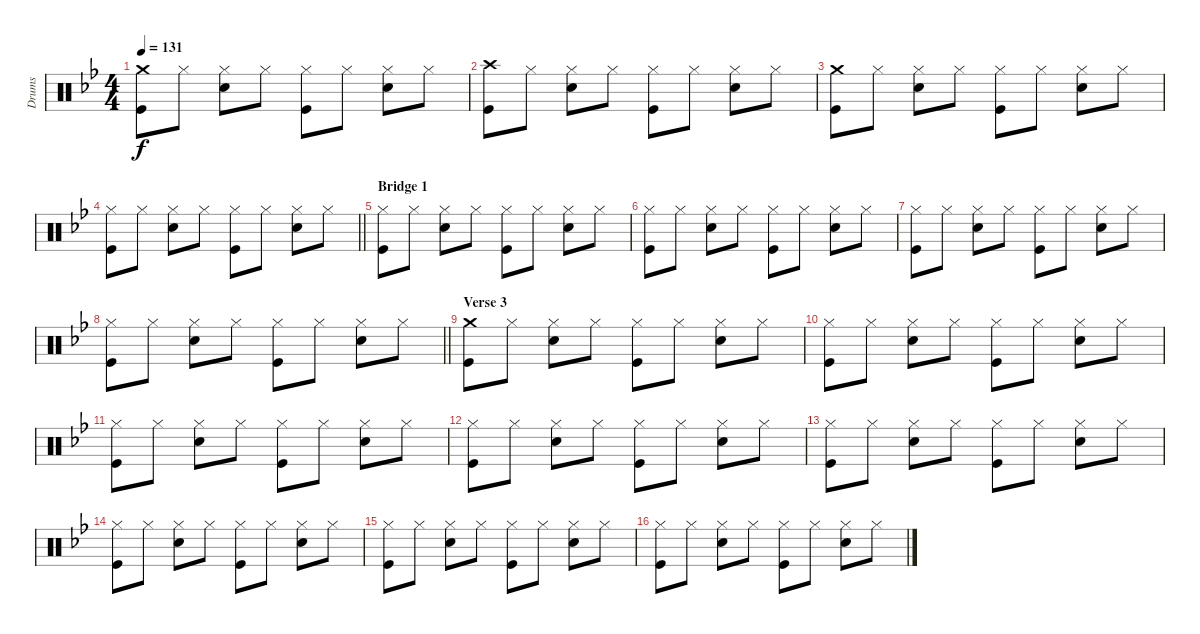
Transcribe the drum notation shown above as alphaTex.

\track ("Drums" "Drums") {instrument percussion}
\staff {score}
\articulation defaults
\ts (4 4)
\tempo 131
\clef neutral
\ks bb
("Crash medium (hit)" "Kick (hit)").8{dy f} "Hi-Hat (closed)".8 ("Hi-Hat (closed)" "Snare (hit) 2").8 "Hi-Hat (closed)".8 ("Hi-Hat (closed)" "Kick (hit)").8 "Hi-Hat (closed)".8 ("Hi-Hat (closed)" "Snare (hit) 2").8 "Hi-Hat (closed)".8 |
("Crash high (hit)" "Kick (hit)").8 "Hi-Hat (closed)".8 ("Hi-Hat (closed)" "Snare (hit) 2").8 "Hi-Hat (closed)".8 ("Hi-Hat (closed)" "Kick (hit)").8 "Hi-Hat (closed)".8 ("Hi-Hat (closed)" "Snare (hit) 2").8 "Hi-Hat (closed)".8 |
("Crash medium (hit)" "Kick (hit)").8 "Hi-Hat (closed)".8 ("Hi-Hat (closed)" "Snare (hit) 2").8 "Hi-Hat (closed)".8 ("Hi-Hat (closed)" "Kick (hit)").8 "Hi-Hat (closed)".8 ("Hi-Hat (closed)" "Snare (hit) 2").8 "Hi-Hat (closed)".8 |
\barLineRight lightlight
("Hi-Hat (closed)" "Kick (hit)").8 "Hi-Hat (closed)".8 ("Hi-Hat (closed)" "Snare (hit) 2").8 "Hi-Hat (closed)".8 ("Hi-Hat (closed)" "Kick (hit)").8 "Hi-Hat (closed)".8 ("Hi-Hat (closed)" "Snare (hit) 2").8 "Hi-Hat (closed)".8 |
\section ("" "Bridge 1")
("Hi-Hat (closed)" "Kick (hit)").8 "Hi-Hat (closed)".8 ("Hi-Hat (closed)" "Snare (hit) 2").8 "Hi-Hat (closed)".8 ("Hi-Hat (closed)" "Kick (hit)").8 "Hi-Hat (closed)".8 ("Hi-Hat (closed)" "Snare (hit) 2").8 "Hi-Hat (closed)".8 |
("Hi-Hat (closed)" "Kick (hit)").8 "Hi-Hat (closed)".8 ("Hi-Hat (closed)" "Snare (hit) 2").8 "Hi-Hat (closed)".8 ("Hi-Hat (closed)" "Kick (hit)").8 "Hi-Hat (closed)".8 ("Hi-Hat (closed)" "Snare (hit) 2").8 "Hi-Hat (closed)".8 |
("Hi-Hat (closed)" "Kick (hit)").8 "Hi-Hat (closed)".8 ("Hi-Hat (closed)" "Snare (hit) 2").8 "Hi-Hat (closed)".8 ("Hi-Hat (closed)" "Kick (hit)").8 "Hi-Hat (closed)".8 ("Hi-Hat (closed)" "Snare (hit) 2").8 "Hi-Hat (closed)".8 |
\barLineRight lightlight
("Hi-Hat (closed)" "Kick (hit)").8 "Hi-Hat (closed)".8 ("Hi-Hat (closed)" "Snare (hit) 2").8 "Hi-Hat (closed)".8 ("Hi-Hat (closed)" "Kick (hit)").8 "Hi-Hat (closed)".8 ("Hi-Hat (closed)" "Snare (hit) 2").8 "Hi-Hat (closed)".8 |
\section ("" "Verse 3")
("Crash medium (hit)" "Kick (hit)").8 "Hi-Hat (closed)".8 ("Hi-Hat (closed)" "Snare (hit) 2").8 "Hi-Hat (closed)".8 ("Hi-Hat (closed)" "Kick (hit)").8 "Hi-Hat (closed)".8 ("Hi-Hat (closed)" "Snare (hit) 2").8 "Hi-Hat (closed)".8 |
("Hi-Hat (closed)" "Kick (hit)").8 "Hi-Hat (closed)".8 ("Hi-Hat (closed)" "Snare (hit) 2").8 "Hi-Hat (closed)".8 ("Hi-Hat (closed)" "Kick (hit)").8 "Hi-Hat (closed)".8 ("Hi-Hat (closed)" "Snare (hit) 2").8 "Hi-Hat (closed)".8 |
("Hi-Hat (closed)" "Kick (hit)").8 "Hi-Hat (closed)".8 ("Hi-Hat (closed)" "Snare (hit) 2").8 "Hi-Hat (closed)".8 ("Hi-Hat (closed)" "Kick (hit)").8 "Hi-Hat (closed)".8 ("Hi-Hat (closed)" "Snare (hit) 2").8 "Hi-Hat (closed)".8 |
("Hi-Hat (closed)" "Kick (hit)").8 "Hi-Hat (closed)".8 ("Hi-Hat (closed)" "Snare (hit) 2").8 "Hi-Hat (closed)".8 ("Hi-Hat (closed)" "Kick (hit)").8 "Hi-Hat (closed)".8 ("Hi-Hat (closed)" "Snare (hit) 2").8 "Hi-Hat (closed)".8 |
("Hi-Hat (closed)" "Kick (hit)").8 "Hi-Hat (closed)".8 ("Hi-Hat (closed)" "Snare (hit) 2").8 "Hi-Hat (closed)".8 ("Hi-Hat (closed)" "Kick (hit)").8 "Hi-Hat (closed)".8 ("Hi-Hat (closed)" "Snare (hit) 2").8 "Hi-Hat (closed)".8 |
("Hi-Hat (closed)" "Kick (hit)").8 "Hi-Hat (closed)".8 ("Hi-Hat (closed)" "Snare (hit) 2").8 "Hi-Hat (closed)".8 ("Hi-Hat (closed)" "Kick (hit)").8 "Hi-Hat (closed)".8 ("Hi-Hat (closed)" "Snare (hit) 2").8 "Hi-Hat (closed)".8 |
("Hi-Hat (closed)" "Kick (hit)").8 "Hi-Hat (closed)".8 ("Hi-Hat (closed)" "Snare (hit) 2").8 "Hi-Hat (closed)".8 ("Hi-Hat (closed)" "Kick (hit)").8 "Hi-Hat (closed)".8 ("Hi-Hat (closed)" "Snare (hit) 2").8 "Hi-Hat (closed)".8 |
("Hi-Hat (closed)" "Kick (hit)").8 "Hi-Hat (closed)".8 ("Hi-Hat (closed)" "Snare (hit) 2").8 "Hi-Hat (closed)".8 ("Hi-Hat (closed)" "Kick (hit)").8 "Hi-Hat (closed)".8 ("Hi-Hat (closed)" "Snare (hit) 2").8 "Hi-Hat (closed)".8
